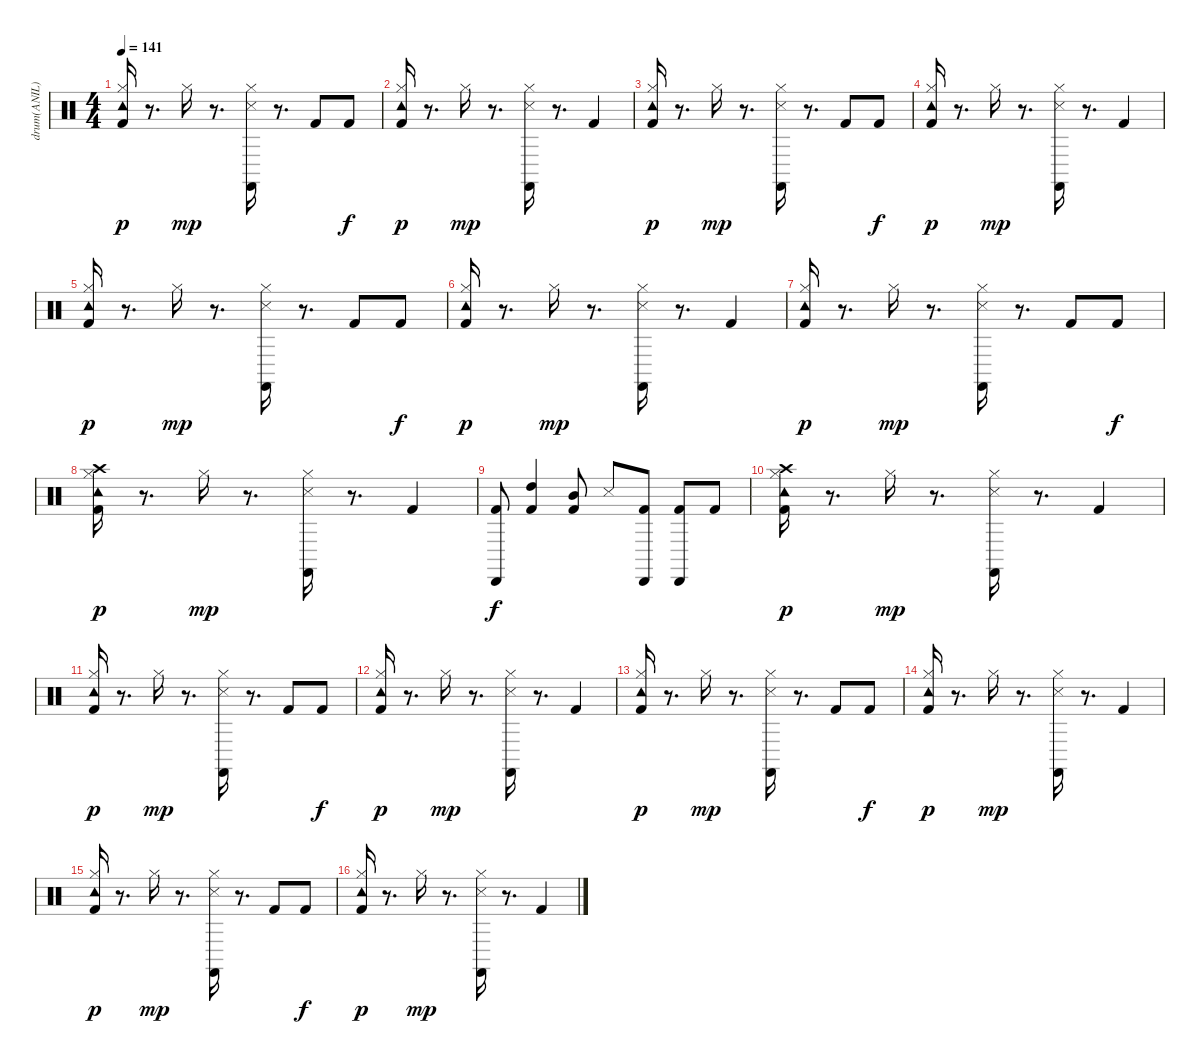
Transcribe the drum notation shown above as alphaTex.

\track ("drum(ANIL)" "drum(ANIL)") {instrument percussion}
\staff {score}
\articulation defaults
\ts (4 4)
\tempo 141
\clef neutral
\ks c
("Kick (hit) 2" "Hi-Hat (closed)" "Tambourine (hit)").16{dy p} r.8{d} "Hi-Hat (closed)".16{dy mp} r.8{d} ("Castanets (hit)" "Snare (side stick) 3" "Hi-Hat (closed)").16 r.8{d} "Kick (hit) 2".8 "Kick (hit) 2".8{dy f} |
("Kick (hit) 2" "Hi-Hat (closed)" "Tambourine (hit)").16{dy p} r.8{d} "Hi-Hat (closed)".16{dy mp} r.8{d} ("Castanets (hit)" "Snare (side stick) 3" "Hi-Hat (closed)").16 r.8{d} "Kick (hit) 2".4 |
("Kick (hit) 2" "Hi-Hat (closed)" "Tambourine (hit)").16{dy p} r.8{d} "Hi-Hat (closed)".16{dy mp} r.8{d} ("Castanets (hit)" "Snare (side stick) 3" "Hi-Hat (closed)").16 r.8{d} "Kick (hit) 2".8 "Kick (hit) 2".8{dy f} |
("Kick (hit) 2" "Hi-Hat (closed)" "Tambourine (hit)").16{dy p} r.8{d} "Hi-Hat (closed)".16{dy mp} r.8{d} ("Castanets (hit)" "Snare (side stick) 3" "Hi-Hat (closed)").16 r.8{d} "Kick (hit) 2".4 |
("Kick (hit) 2" "Hi-Hat (closed)" "Tambourine (hit)").16{dy p} r.8{d} "Hi-Hat (closed)".16{dy mp} r.8{d} ("Castanets (hit)" "Snare (side stick) 3" "Hi-Hat (closed)").16 r.8{d} "Kick (hit) 2".8 "Kick (hit) 2".8{dy f} |
("Kick (hit) 2" "Hi-Hat (closed)" "Tambourine (hit)").16{dy p} r.8{d} "Hi-Hat (closed)".16{dy mp} r.8{d} ("Castanets (hit)" "Snare (side stick) 3" "Hi-Hat (closed)").16 r.8{d} "Kick (hit) 2".4 |
("Kick (hit) 2" "Hi-Hat (closed)" "Tambourine (hit)").16{dy p} r.8{d} "Hi-Hat (closed)".16{dy mp} r.8{d} ("Castanets (hit)" "Snare (side stick) 3" "Hi-Hat (closed)").16 r.8{d} "Kick (hit) 2".8 "Kick (hit) 2".8{dy f} |
("Kick (hit) 2" "Hi-Hat (closed)" "Tambourine (hit)" "Crash high (hit)").16{dy p} r.8{d} "Hi-Hat (closed)".16{dy mp} r.8{d} ("Castanets (hit)" "Snare (side stick) 3" "Hi-Hat (closed)").16 r.8{d} "Kick (hit) 2".4 |
("Kick (hit) 2" "Cabasa (hit)").8{dy f} ("High Tom (hit)" "Kick (hit) 2").4 ("Mid Tom (hit)" "Kick (hit) 2").8 "Snare (side stick) 3".8 ("Kick (hit) 2" "Cabasa (hit)").8 ("Kick (hit) 2" "Cabasa (hit)").8 "Kick (hit) 2".8 |
("Kick (hit) 2" "Hi-Hat (closed)" "Tambourine (hit)" "Crash high (hit)").16{dy p} r.8{d} "Hi-Hat (closed)".16{dy mp} r.8{d} ("Castanets (hit)" "Snare (side stick) 3" "Hi-Hat (closed)").16 r.8{d} "Kick (hit) 2".4 |
("Kick (hit) 2" "Hi-Hat (closed)" "Tambourine (hit)").16{dy p} r.8{d} "Hi-Hat (closed)".16{dy mp} r.8{d} ("Castanets (hit)" "Snare (side stick) 3" "Hi-Hat (closed)").16 r.8{d} "Kick (hit) 2".8 "Kick (hit) 2".8{dy f} |
("Kick (hit) 2" "Hi-Hat (closed)" "Tambourine (hit)").16{dy p} r.8{d} "Hi-Hat (closed)".16{dy mp} r.8{d} ("Castanets (hit)" "Snare (side stick) 3" "Hi-Hat (closed)").16 r.8{d} "Kick (hit) 2".4 |
("Kick (hit) 2" "Hi-Hat (closed)" "Tambourine (hit)").16{dy p} r.8{d} "Hi-Hat (closed)".16{dy mp} r.8{d} ("Castanets (hit)" "Snare (side stick) 3" "Hi-Hat (closed)").16 r.8{d} "Kick (hit) 2".8 "Kick (hit) 2".8{dy f} |
("Kick (hit) 2" "Hi-Hat (closed)" "Tambourine (hit)").16{dy p} r.8{d} "Hi-Hat (closed)".16{dy mp} r.8{d} ("Castanets (hit)" "Snare (side stick) 3" "Hi-Hat (closed)").16 r.8{d} "Kick (hit) 2".4 |
("Kick (hit) 2" "Hi-Hat (closed)" "Tambourine (hit)").16{dy p} r.8{d} "Hi-Hat (closed)".16{dy mp} r.8{d} ("Castanets (hit)" "Snare (side stick) 3" "Hi-Hat (closed)").16 r.8{d} "Kick (hit) 2".8 "Kick (hit) 2".8{dy f} |
("Kick (hit) 2" "Hi-Hat (closed)" "Tambourine (hit)").16{dy p} r.8{d} "Hi-Hat (closed)".16{dy mp} r.8{d} ("Castanets (hit)" "Snare (side stick) 3" "Hi-Hat (closed)").16 r.8{d} "Kick (hit) 2".4
